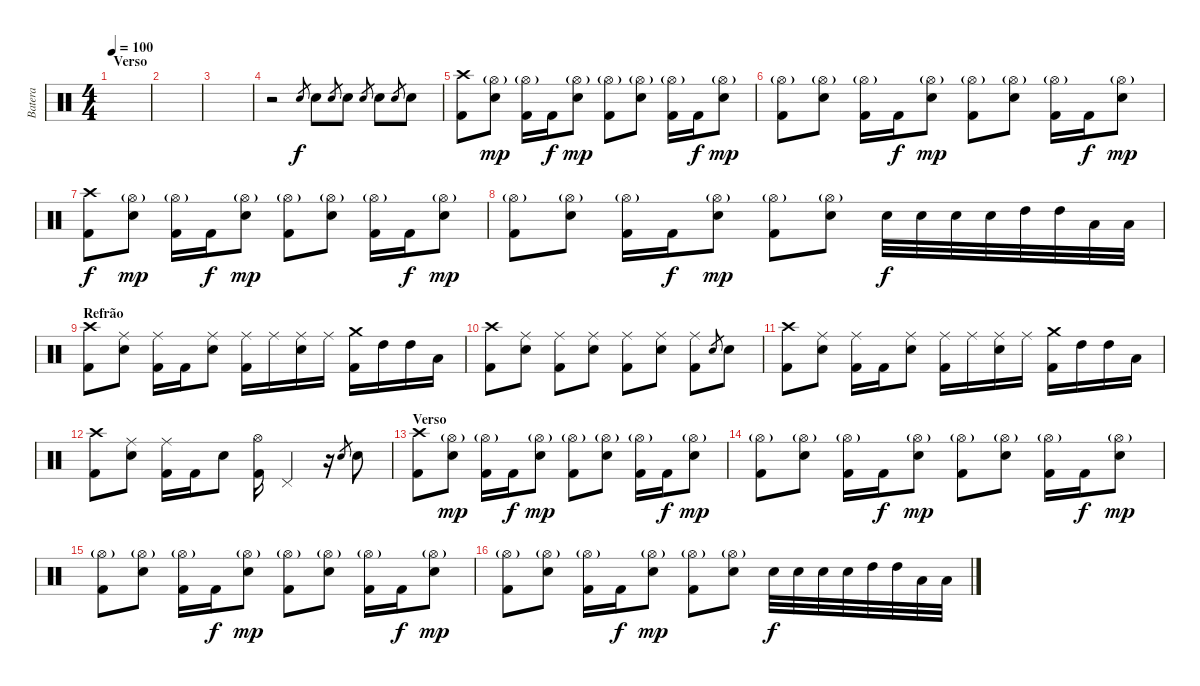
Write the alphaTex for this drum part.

\track ("Batera" "Batera") {instrument percussion}
\staff {score}
\articulation defaults
\ts (4 4)
\section ("" "Verso")
\tempo 100
\clef neutral
\ks c
|
|
|
r.2 "Electric Snare (hit)".8{gr} "Electric Snare (hit)".8 "Electric Snare (hit)".8{gr} "Electric Snare (hit)".8 "Electric Snare (hit)".8{gr} "Electric Snare (hit)".8 "Electric Snare (hit)".8{gr} "Electric Snare (hit)".8 |
("Crash high (hit)" "Kick (hit) 2").8 ("Hi-Hat (open)"{g} "Electric Snare (hit)").8{dy mp} ("Hi-Hat (open)"{g} "Kick (hit) 2").16 "Kick (hit) 2".16{dy f} ("Hi-Hat (open)"{g} "Electric Snare (hit)").8{dy mp} ("Hi-Hat (open)"{g} "Kick (hit) 2").8 ("Hi-Hat (open)"{g} "Electric Snare (hit)").8 ("Hi-Hat (open)"{g} "Kick (hit) 2").16 "Kick (hit) 2".16{dy f} ("Hi-Hat (open)"{g} "Electric Snare (hit)").8{dy mp} |
("Hi-Hat (open)"{g} "Kick (hit) 2").8 ("Hi-Hat (open)"{g} "Electric Snare (hit)").8 ("Hi-Hat (open)"{g} "Kick (hit) 2").16 "Kick (hit) 2".16{dy f} ("Hi-Hat (open)"{g} "Electric Snare (hit)").8{dy mp} ("Hi-Hat (open)"{g} "Kick (hit) 2").8 ("Hi-Hat (open)"{g} "Electric Snare (hit)").8 ("Hi-Hat (open)"{g} "Kick (hit) 2").16 "Kick (hit) 2".16{dy f} ("Hi-Hat (open)"{g} "Electric Snare (hit)").8{dy mp} |
("Crash high (hit)" "Kick (hit) 2").8{dy f} ("Hi-Hat (open)"{g} "Electric Snare (hit)").8{dy mp} ("Hi-Hat (open)"{g} "Kick (hit) 2").16 "Kick (hit) 2".16{dy f} ("Hi-Hat (open)"{g} "Electric Snare (hit)").8{dy mp} ("Hi-Hat (open)"{g} "Kick (hit) 2").8 ("Hi-Hat (open)"{g} "Electric Snare (hit)").8 ("Hi-Hat (open)"{g} "Kick (hit) 2").16 "Kick (hit) 2".16{dy f} ("Hi-Hat (open)"{g} "Electric Snare (hit)").8{dy mp} |
("Hi-Hat (open)"{g} "Kick (hit) 2").8 ("Hi-Hat (open)"{g} "Electric Snare (hit)").8 ("Hi-Hat (open)"{g} "Kick (hit) 2").16 "Kick (hit) 2".16{dy f} ("Hi-Hat (open)"{g} "Electric Snare (hit)").8{dy mp} ("Hi-Hat (open)"{g} "Kick (hit) 2").8 ("Hi-Hat (open)"{g} "Electric Snare (hit)").8 "Electric Snare (hit)".32{dy f} "Electric Snare (hit)".32 "Electric Snare (hit)".32 "Electric Snare (hit)".32 "High Tom (hit)".32 "High Tom (hit)".32 "Low Tom (hit)".32 "Low Tom (hit)".32 |
\section ("" "Refrão")
("Crash high (hit)" "Kick (hit) 2").8 ("Ride (middle)" "Electric Snare (hit)").8 ("Ride (middle)" "Kick (hit) 2").16 "Kick (hit) 2".16 ("Ride (middle)" "Electric Snare (hit)").8 ("Ride (middle)" "Kick (hit) 2").16 "Ride (middle)".16 ("Ride (middle)" "Electric Snare (hit)").16 "Ride (middle)".16 ("Crash medium (hit)" "Kick (hit) 2").16 "High Tom (hit)".16 "High Tom (hit)".16 "Low Tom (hit)".16 |
("Crash high (hit)" "Kick (hit) 2").8 ("Ride (middle)" "Electric Snare (hit)").8 ("Ride (middle)" "Kick (hit) 2").8 ("Ride (middle)" "Electric Snare (hit)").8 ("Ride (middle)" "Kick (hit) 2").8 ("Ride (middle)" "Electric Snare (hit)").8 ("Ride (middle)" "Kick (hit) 2").8 "Electric Snare (hit)".8{gr} "Electric Snare (hit)".8 |
("Crash high (hit)" "Kick (hit) 2").8 ("Ride (middle)" "Electric Snare (hit)").8 ("Ride (middle)" "Kick (hit) 2").16 "Kick (hit) 2".16 ("Ride (middle)" "Electric Snare (hit)").8 ("Ride (middle)" "Kick (hit) 2").16 "Ride (middle)".16 ("Ride (middle)" "Electric Snare (hit)").16 "Ride (middle)".16 ("Crash medium (hit)" "Kick (hit) 2").16 "High Tom (hit)".16 "High Tom (hit)".16 "Low Tom (hit)".16 |
("Crash high (hit)" "Kick (hit) 2").8 ("Ride (middle)" "Electric Snare (hit)").8 ("Ride (middle)" "Kick (hit) 2").16 "Kick (hit) 2".16 "Electric Snare (hit)".8 ("Hi-Hat (open)" "Kick (hit) 2").16 "Pedal Hi-Hat (hit)".4 r.16 "Electric Snare (hit)".8{gr} "Electric Snare (hit)".8 |
\section ("" "Verso")
("Crash high (hit)" "Kick (hit) 2").8 ("Hi-Hat (open)"{g} "Electric Snare (hit)").8{dy mp} ("Hi-Hat (open)"{g} "Kick (hit) 2").16 "Kick (hit) 2".16{dy f} ("Hi-Hat (open)"{g} "Electric Snare (hit)").8{dy mp} ("Hi-Hat (open)"{g} "Kick (hit) 2").8 ("Hi-Hat (open)"{g} "Electric Snare (hit)").8 ("Hi-Hat (open)"{g} "Kick (hit) 2").16 "Kick (hit) 2".16{dy f} ("Hi-Hat (open)"{g} "Electric Snare (hit)").8{dy mp} |
("Hi-Hat (open)"{g} "Kick (hit) 2").8 ("Hi-Hat (open)"{g} "Electric Snare (hit)").8 ("Hi-Hat (open)"{g} "Kick (hit) 2").16 "Kick (hit) 2".16{dy f} ("Hi-Hat (open)"{g} "Electric Snare (hit)").8{dy mp} ("Hi-Hat (open)"{g} "Kick (hit) 2").8 ("Hi-Hat (open)"{g} "Electric Snare (hit)").8 ("Hi-Hat (open)"{g} "Kick (hit) 2").16 "Kick (hit) 2".16{dy f} ("Hi-Hat (open)"{g} "Electric Snare (hit)").8{dy mp} |
("Hi-Hat (open)"{g} "Kick (hit) 2").8 ("Hi-Hat (open)"{g} "Electric Snare (hit)").8 ("Hi-Hat (open)"{g} "Kick (hit) 2").16 "Kick (hit) 2".16{dy f} ("Hi-Hat (open)"{g} "Electric Snare (hit)").8{dy mp} ("Hi-Hat (open)"{g} "Kick (hit) 2").8 ("Hi-Hat (open)"{g} "Electric Snare (hit)").8 ("Hi-Hat (open)"{g} "Kick (hit) 2").16 "Kick (hit) 2".16{dy f} ("Hi-Hat (open)"{g} "Electric Snare (hit)").8{dy mp} |
("Hi-Hat (open)"{g} "Kick (hit) 2").8 ("Hi-Hat (open)"{g} "Electric Snare (hit)").8 ("Hi-Hat (open)"{g} "Kick (hit) 2").16 "Kick (hit) 2".16{dy f} ("Hi-Hat (open)"{g} "Electric Snare (hit)").8{dy mp} ("Hi-Hat (open)"{g} "Kick (hit) 2").8 ("Hi-Hat (open)"{g} "Electric Snare (hit)").8 "Electric Snare (hit)".32{dy f} "Electric Snare (hit)".32 "Electric Snare (hit)".32 "Electric Snare (hit)".32 "High Tom (hit)".32 "High Tom (hit)".32 "Low Tom (hit)".32 "Low Tom (hit)".32
